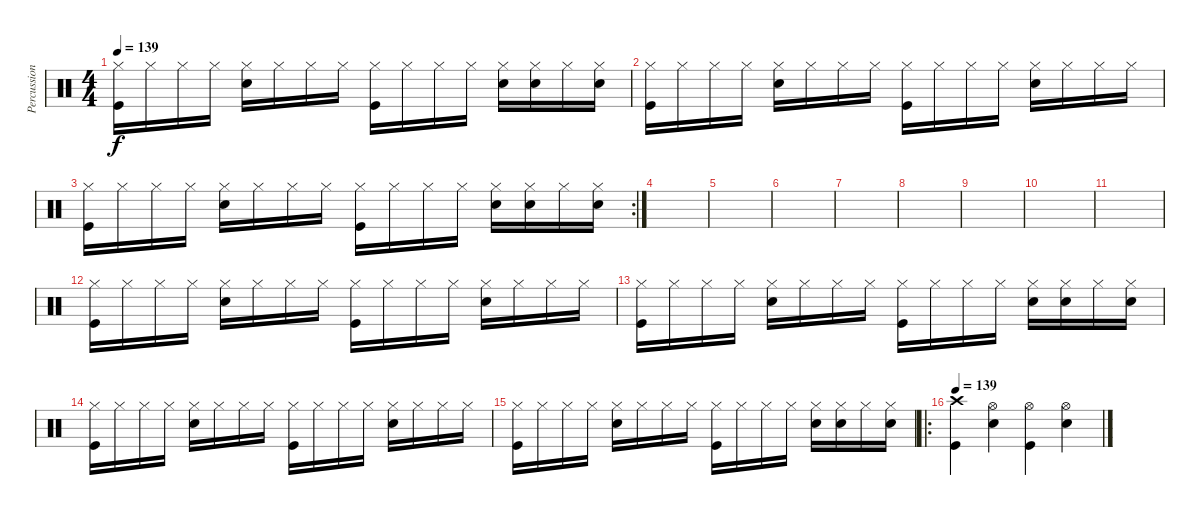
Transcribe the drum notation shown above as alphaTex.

\track ("Percussion" "Percussion") {instrument percussion}
\staff {score}
\articulation defaults
\ts (4 4)
\tempo 139
\clef neutral
\ks c
("Hi-Hat (closed)" "Kick (hit)").16{dy f} "Hi-Hat (closed)".16 "Hi-Hat (closed)".16 "Hi-Hat (closed)".16 ("Hi-Hat (closed)" "Snare (hit) 2").16 "Hi-Hat (closed)".16 "Hi-Hat (closed)".16 "Hi-Hat (closed)".16 ("Hi-Hat (closed)" "Kick (hit)").16 "Hi-Hat (closed)".16 "Hi-Hat (closed)".16 "Hi-Hat (closed)".16 ("Hi-Hat (closed)" "Snare (hit) 2").16 ("Hi-Hat (closed)" "Snare (hit) 2").16 "Hi-Hat (closed)".16 ("Hi-Hat (closed)" "Snare (hit) 2").16 |
("Hi-Hat (closed)" "Kick (hit)").16 "Hi-Hat (closed)".16 "Hi-Hat (closed)".16 "Hi-Hat (closed)".16 ("Hi-Hat (closed)" "Snare (hit) 2").16 "Hi-Hat (closed)".16 "Hi-Hat (closed)".16 "Hi-Hat (closed)".16 ("Hi-Hat (closed)" "Kick (hit)").16 "Hi-Hat (closed)".16 "Hi-Hat (closed)".16 "Hi-Hat (closed)".16 ("Hi-Hat (closed)" "Snare (hit) 2").16 "Hi-Hat (closed)".16 "Hi-Hat (closed)".16 "Hi-Hat (closed)".16 |
\rc 2
("Hi-Hat (closed)" "Kick (hit)").16 "Hi-Hat (closed)".16 "Hi-Hat (closed)".16 "Hi-Hat (closed)".16 ("Hi-Hat (closed)" "Snare (hit) 2").16 "Hi-Hat (closed)".16 "Hi-Hat (closed)".16 "Hi-Hat (closed)".16 ("Hi-Hat (closed)" "Kick (hit)").16 "Hi-Hat (closed)".16 "Hi-Hat (closed)".16 "Hi-Hat (closed)".16 ("Hi-Hat (closed)" "Snare (hit) 2").16 ("Hi-Hat (closed)" "Snare (hit) 2").16 "Hi-Hat (closed)".16 ("Hi-Hat (closed)" "Snare (hit) 2").16 |
|
|
|
|
|
|
|
|
("Hi-Hat (closed)" "Kick (hit)").16 "Hi-Hat (closed)".16 "Hi-Hat (closed)".16 "Hi-Hat (closed)".16 ("Hi-Hat (closed)" "Snare (hit) 2").16 "Hi-Hat (closed)".16 "Hi-Hat (closed)".16 "Hi-Hat (closed)".16 ("Hi-Hat (closed)" "Kick (hit)").16 "Hi-Hat (closed)".16 "Hi-Hat (closed)".16 "Hi-Hat (closed)".16 ("Hi-Hat (closed)" "Snare (hit) 2").16 "Hi-Hat (closed)".16 "Hi-Hat (closed)".16 "Hi-Hat (closed)".16 |
("Hi-Hat (closed)" "Kick (hit)").16 "Hi-Hat (closed)".16 "Hi-Hat (closed)".16 "Hi-Hat (closed)".16 ("Hi-Hat (closed)" "Snare (hit) 2").16 "Hi-Hat (closed)".16 "Hi-Hat (closed)".16 "Hi-Hat (closed)".16 ("Hi-Hat (closed)" "Kick (hit)").16 "Hi-Hat (closed)".16 "Hi-Hat (closed)".16 "Hi-Hat (closed)".16 ("Hi-Hat (closed)" "Snare (hit) 2").16 ("Hi-Hat (closed)" "Snare (hit) 2").16 "Hi-Hat (closed)".16 ("Hi-Hat (closed)" "Snare (hit) 2").16 |
("Hi-Hat (closed)" "Kick (hit)").16 "Hi-Hat (closed)".16 "Hi-Hat (closed)".16 "Hi-Hat (closed)".16 ("Hi-Hat (closed)" "Snare (hit) 2").16 "Hi-Hat (closed)".16 "Hi-Hat (closed)".16 "Hi-Hat (closed)".16 ("Hi-Hat (closed)" "Kick (hit)").16 "Hi-Hat (closed)".16 "Hi-Hat (closed)".16 "Hi-Hat (closed)".16 ("Hi-Hat (closed)" "Snare (hit) 2").16 "Hi-Hat (closed)".16 "Hi-Hat (closed)".16 "Hi-Hat (closed)".16 |
("Hi-Hat (closed)" "Kick (hit)").16 "Hi-Hat (closed)".16 "Hi-Hat (closed)".16 "Hi-Hat (closed)".16 ("Hi-Hat (closed)" "Snare (hit) 2").16 "Hi-Hat (closed)".16 "Hi-Hat (closed)".16 "Hi-Hat (closed)".16 ("Hi-Hat (closed)" "Kick (hit)").16 "Hi-Hat (closed)".16 "Hi-Hat (closed)".16 "Hi-Hat (closed)".16 ("Hi-Hat (closed)" "Snare (hit) 2").16 ("Hi-Hat (closed)" "Snare (hit) 2").16 "Hi-Hat (closed)".16 ("Hi-Hat (closed)" "Snare (hit) 2").16 |
\ro
\tempo 139
("Crash high (hit)" "Kick (hit)").4{volume 15} ("Hi-Hat (open)" "Snare (hit) 2").4 ("Hi-Hat (open)" "Kick (hit)").4 ("Hi-Hat (open)" "Snare (hit) 2").4
